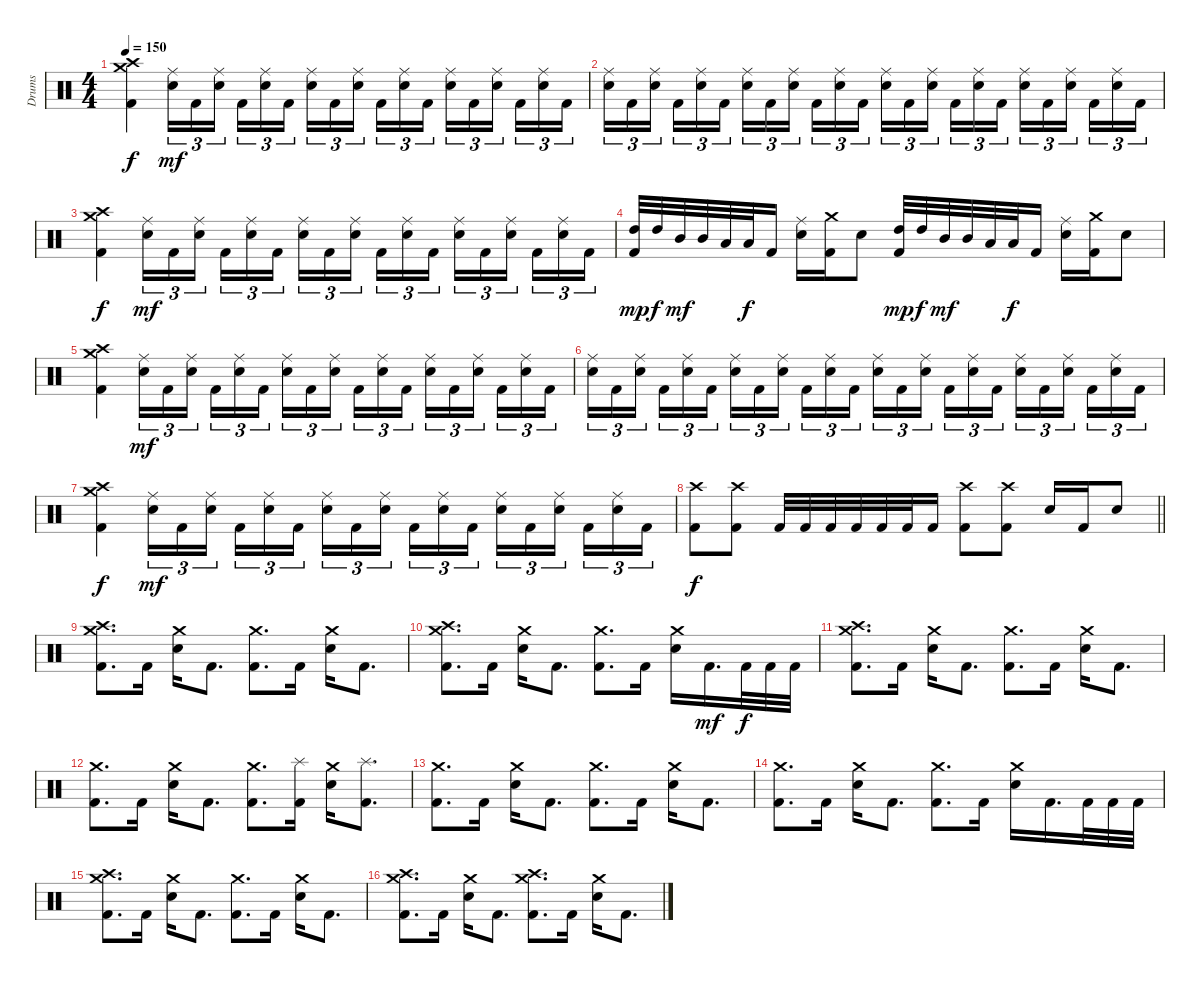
\track ("Drums" "Drums") {instrument percussion}
\staff {score}
\articulation defaults
\ts (4 4)
\tempo 150
\clef neutral
\ks c
("Crash medium (hit)" "Crash high (hit)" "Kick (hit) 2").4{dy f} ("Ride (middle)" "Snare (hit) 2").16{tu (3 2) dy mf} "Kick (hit) 2".16{tu (3 2)} ("Ride (middle)" "Snare (hit) 2").16{tu (3 2) beam splitsecondary} "Kick (hit) 2".16{tu (3 2)} ("Ride (middle)" "Snare (hit) 2").16{tu (3 2)} "Kick (hit) 2".16{tu (3 2)} ("Ride (middle)" "Snare (hit) 2").16{tu (3 2)} "Kick (hit) 2".16{tu (3 2)} ("Ride (middle)" "Snare (hit) 2").16{tu (3 2) beam splitsecondary} "Kick (hit) 2".16{tu (3 2)} ("Ride (middle)" "Snare (hit) 2").16{tu (3 2)} "Kick (hit) 2".16{tu (3 2)} ("Ride (middle)" "Snare (hit) 2").16{tu (3 2)} "Kick (hit) 2".16{tu (3 2)} ("Ride (middle)" "Snare (hit) 2").16{tu (3 2) beam splitsecondary} "Kick (hit) 2".16{tu (3 2)} ("Ride (middle)" "Snare (hit) 2").16{tu (3 2)} "Kick (hit) 2".16{tu (3 2)} |
("Ride (middle)" "Snare (hit) 2").16{tu (3 2)} "Kick (hit) 2".16{tu (3 2)} ("Ride (middle)" "Snare (hit) 2").16{tu (3 2) beam splitsecondary} "Kick (hit) 2".16{tu (3 2)} ("Ride (middle)" "Snare (hit) 2").16{tu (3 2)} "Kick (hit) 2".16{tu (3 2)} ("Ride (middle)" "Snare (hit) 2").16{tu (3 2)} "Kick (hit) 2".16{tu (3 2)} ("Ride (middle)" "Snare (hit) 2").16{tu (3 2) beam splitsecondary} "Kick (hit) 2".16{tu (3 2)} ("Ride (middle)" "Snare (hit) 2").16{tu (3 2)} "Kick (hit) 2".16{tu (3 2)} ("Ride (middle)" "Snare (hit) 2").16{tu (3 2)} "Kick (hit) 2".16{tu (3 2)} ("Ride (middle)" "Snare (hit) 2").16{tu (3 2) beam splitsecondary} "Kick (hit) 2".16{tu (3 2)} ("Ride (middle)" "Snare (hit) 2").16{tu (3 2)} "Kick (hit) 2".16{tu (3 2)} ("Ride (middle)" "Snare (hit) 2").16{tu (3 2)} "Kick (hit) 2".16{tu (3 2)} ("Ride (middle)" "Snare (hit) 2").16{tu (3 2) beam splitsecondary} "Kick (hit) 2".16{tu (3 2)} ("Ride (middle)" "Snare (hit) 2").16{tu (3 2)} "Kick (hit) 2".16{tu (3 2)} |
("Crash medium (hit)" "Crash high (hit)" "Kick (hit) 2").4{dy f} ("Ride (middle)" "Snare (hit) 2").16{tu (3 2) dy mf} "Kick (hit) 2".16{tu (3 2)} ("Ride (middle)" "Snare (hit) 2").16{tu (3 2) beam splitsecondary} "Kick (hit) 2".16{tu (3 2)} ("Ride (middle)" "Snare (hit) 2").16{tu (3 2)} "Kick (hit) 2".16{tu (3 2)} ("Ride (middle)" "Snare (hit) 2").16{tu (3 2)} "Kick (hit) 2".16{tu (3 2)} ("Ride (middle)" "Snare (hit) 2").16{tu (3 2) beam splitsecondary} "Kick (hit) 2".16{tu (3 2)} ("Ride (middle)" "Snare (hit) 2").16{tu (3 2)} "Kick (hit) 2".16{tu (3 2)} ("Ride (middle)" "Snare (hit) 2").16{tu (3 2)} "Kick (hit) 2".16{tu (3 2)} ("Ride (middle)" "Snare (hit) 2").16{tu (3 2) beam splitsecondary} "Kick (hit) 2".16{tu (3 2)} ("Ride (middle)" "Snare (hit) 2").16{tu (3 2)} "Kick (hit) 2".16{tu (3 2)} |
("High Tom (hit)" "Kick (hit) 2").32{dy mp} "High Tom (hit)".32{dy f} "Mid Tom (hit)".32{dy mf} "Mid Tom (hit)".32 "Low Tom (hit)".32 "Low Tom (hit)".32{dy f} "Kick (hit) 2".16 ("Ride (middle)" "Snare (hit) 2").16 ("Crash medium (hit)" "Kick (hit) 2").16 "Snare (hit) 2".8 ("High Tom (hit)" "Kick (hit) 2").32{dy mp} "High Tom (hit)".32{dy f} "Mid Tom (hit)".32{dy mf} "Mid Tom (hit)".32 "Low Tom (hit)".32 "Low Tom (hit)".32{dy f} "Kick (hit) 2".16 ("Ride (middle)" "Snare (hit) 2").16 ("Crash medium (hit)" "Kick (hit) 2").16 "Snare (hit) 2".8 |
("Crash medium (hit)" "Crash high (hit)" "Kick (hit) 2").4 ("Ride (middle)" "Snare (hit) 2").16{tu (3 2) dy mf} "Kick (hit) 2".16{tu (3 2)} ("Ride (middle)" "Snare (hit) 2").16{tu (3 2) beam splitsecondary} "Kick (hit) 2".16{tu (3 2)} ("Ride (middle)" "Snare (hit) 2").16{tu (3 2)} "Kick (hit) 2".16{tu (3 2)} ("Ride (middle)" "Snare (hit) 2").16{tu (3 2)} "Kick (hit) 2".16{tu (3 2)} ("Ride (middle)" "Snare (hit) 2").16{tu (3 2) beam splitsecondary} "Kick (hit) 2".16{tu (3 2)} ("Ride (middle)" "Snare (hit) 2").16{tu (3 2)} "Kick (hit) 2".16{tu (3 2)} ("Ride (middle)" "Snare (hit) 2").16{tu (3 2)} "Kick (hit) 2".16{tu (3 2)} ("Ride (middle)" "Snare (hit) 2").16{tu (3 2) beam splitsecondary} "Kick (hit) 2".16{tu (3 2)} ("Ride (middle)" "Snare (hit) 2").16{tu (3 2)} "Kick (hit) 2".16{tu (3 2)} |
("Ride (middle)" "Snare (hit) 2").16{tu (3 2)} "Kick (hit) 2".16{tu (3 2)} ("Ride (middle)" "Snare (hit) 2").16{tu (3 2) beam splitsecondary} "Kick (hit) 2".16{tu (3 2)} ("Ride (middle)" "Snare (hit) 2").16{tu (3 2)} "Kick (hit) 2".16{tu (3 2)} ("Ride (middle)" "Snare (hit) 2").16{tu (3 2)} "Kick (hit) 2".16{tu (3 2)} ("Ride (middle)" "Snare (hit) 2").16{tu (3 2) beam splitsecondary} "Kick (hit) 2".16{tu (3 2)} ("Ride (middle)" "Snare (hit) 2").16{tu (3 2)} "Kick (hit) 2".16{tu (3 2)} ("Ride (middle)" "Snare (hit) 2").16{tu (3 2)} "Kick (hit) 2".16{tu (3 2)} ("Ride (middle)" "Snare (hit) 2").16{tu (3 2) beam splitsecondary} "Kick (hit) 2".16{tu (3 2)} ("Ride (middle)" "Snare (hit) 2").16{tu (3 2)} "Kick (hit) 2".16{tu (3 2)} ("Ride (middle)" "Snare (hit) 2").16{tu (3 2)} "Kick (hit) 2".16{tu (3 2)} ("Ride (middle)" "Snare (hit) 2").16{tu (3 2) beam splitsecondary} "Kick (hit) 2".16{tu (3 2)} ("Ride (middle)" "Snare (hit) 2").16{tu (3 2)} "Kick (hit) 2".16{tu (3 2)} |
("Crash medium (hit)" "Crash high (hit)" "Kick (hit) 2").4{dy f} ("Ride (middle)" "Snare (hit) 2").16{tu (3 2) dy mf} "Kick (hit) 2".16{tu (3 2)} ("Ride (middle)" "Snare (hit) 2").16{tu (3 2) beam splitsecondary} "Kick (hit) 2".16{tu (3 2)} ("Ride (middle)" "Snare (hit) 2").16{tu (3 2)} "Kick (hit) 2".16{tu (3 2)} ("Ride (middle)" "Snare (hit) 2").16{tu (3 2)} "Kick (hit) 2".16{tu (3 2)} ("Ride (middle)" "Snare (hit) 2").16{tu (3 2) beam splitsecondary} "Kick (hit) 2".16{tu (3 2)} ("Ride (middle)" "Snare (hit) 2").16{tu (3 2)} "Kick (hit) 2".16{tu (3 2)} ("Ride (middle)" "Snare (hit) 2").16{tu (3 2)} "Kick (hit) 2".16{tu (3 2)} ("Ride (middle)" "Snare (hit) 2").16{tu (3 2) beam splitsecondary} "Kick (hit) 2".16{tu (3 2)} ("Ride (middle)" "Snare (hit) 2").16{tu (3 2)} "Kick (hit) 2".16{tu (3 2)} |
\barLineRight lightlight
("Crash high (hit)" "Kick (hit) 2").8{dy f} ("Crash high (hit)" "Kick (hit) 2").8 "Kick (hit) 2".32 "Kick (hit) 2".32 "Kick (hit) 2".32 "Kick (hit) 2".32 "Kick (hit) 2".32 "Kick (hit) 2".32 "Kick (hit) 2".16 ("Crash high (hit)" "Kick (hit) 2").8 ("Crash high (hit)" "Kick (hit) 2").8 "Snare (hit) 2".16 "Kick (hit) 2".16 "Snare (hit) 2".8 |
\section ("" "")
("Crash medium (hit)" "Crash high (hit)" "Kick (hit) 2").8{d} "Kick (hit) 2".16 ("Crash medium (hit)" "Snare (hit) 2").16 "Kick (hit) 2".8{d} ("Crash medium (hit)" "Kick (hit) 2").8{d} "Kick (hit) 2".16 ("Crash medium (hit)" "Snare (hit) 2").16 "Kick (hit) 2".8{d} |
("Crash medium (hit)" "Crash high (hit)" "Kick (hit) 2").8{d} "Kick (hit) 2".16 ("Crash medium (hit)" "Snare (hit) 2").16 "Kick (hit) 2".8{d} ("Crash medium (hit)" "Kick (hit) 2").8{d} "Kick (hit) 2".16 ("Crash medium (hit)" "Snare (hit) 2").16 "Kick (hit) 2".16{d dy mf} "Kick (hit) 2".32{dy f} "Kick (hit) 2".32 "Kick (hit) 2".32 |
("Crash medium (hit)" "Crash high (hit)" "Kick (hit) 2").8{d} "Kick (hit) 2".16 ("Crash medium (hit)" "Snare (hit) 2").16 "Kick (hit) 2".8{d} ("Crash medium (hit)" "Kick (hit) 2").8{d} "Kick (hit) 2".16 ("Crash medium (hit)" "Snare (hit) 2").16 "Kick (hit) 2".8{d} |
("Crash medium (hit)" "Kick (hit) 2").8{d} "Kick (hit) 2".16 ("Crash medium (hit)" "Snare (hit) 2").16 "Kick (hit) 2".8{d} ("Crash medium (hit)" "Kick (hit) 2").8{d} ("Splash (hit)" "Kick (hit) 2").16 ("Crash medium (hit)" "Snare (hit) 2").16 ("Splash (hit)" "Kick (hit) 2").8{d} |
("Crash medium (hit)" "Kick (hit) 2").8{d} "Kick (hit) 2".16 ("Crash medium (hit)" "Snare (hit) 2").16 "Kick (hit) 2".8{d} ("Crash medium (hit)" "Kick (hit) 2").8{d} "Kick (hit) 2".16 ("Crash medium (hit)" "Snare (hit) 2").16 "Kick (hit) 2".8{d} |
("Crash medium (hit)" "Kick (hit) 2").8{d} "Kick (hit) 2".16 ("Crash medium (hit)" "Snare (hit) 2").16 "Kick (hit) 2".8{d} ("Crash medium (hit)" "Kick (hit) 2").8{d} "Kick (hit) 2".16 ("Crash medium (hit)" "Snare (hit) 2").16 "Kick (hit) 2".16{d} "Kick (hit) 2".32 "Kick (hit) 2".32 "Kick (hit) 2".32 |
("Crash medium (hit)" "Crash high (hit)" "Kick (hit) 2").8{d} "Kick (hit) 2".16 ("Crash medium (hit)" "Snare (hit) 2").16 "Kick (hit) 2".8{d} ("Crash medium (hit)" "Kick (hit) 2").8{d} "Kick (hit) 2".16 ("Crash medium (hit)" "Snare (hit) 2").16 "Kick (hit) 2".8{d} |
("Crash medium (hit)" "Crash high (hit)" "Kick (hit) 2").8{d} "Kick (hit) 2".16 ("Crash medium (hit)" "Snare (hit) 2").16 "Kick (hit) 2".8{d} ("Crash medium (hit)" "Crash high (hit)" "Kick (hit) 2").8{d} "Kick (hit) 2".16 ("Crash medium (hit)" "Snare (hit) 2").16 "Kick (hit) 2".8{d}
